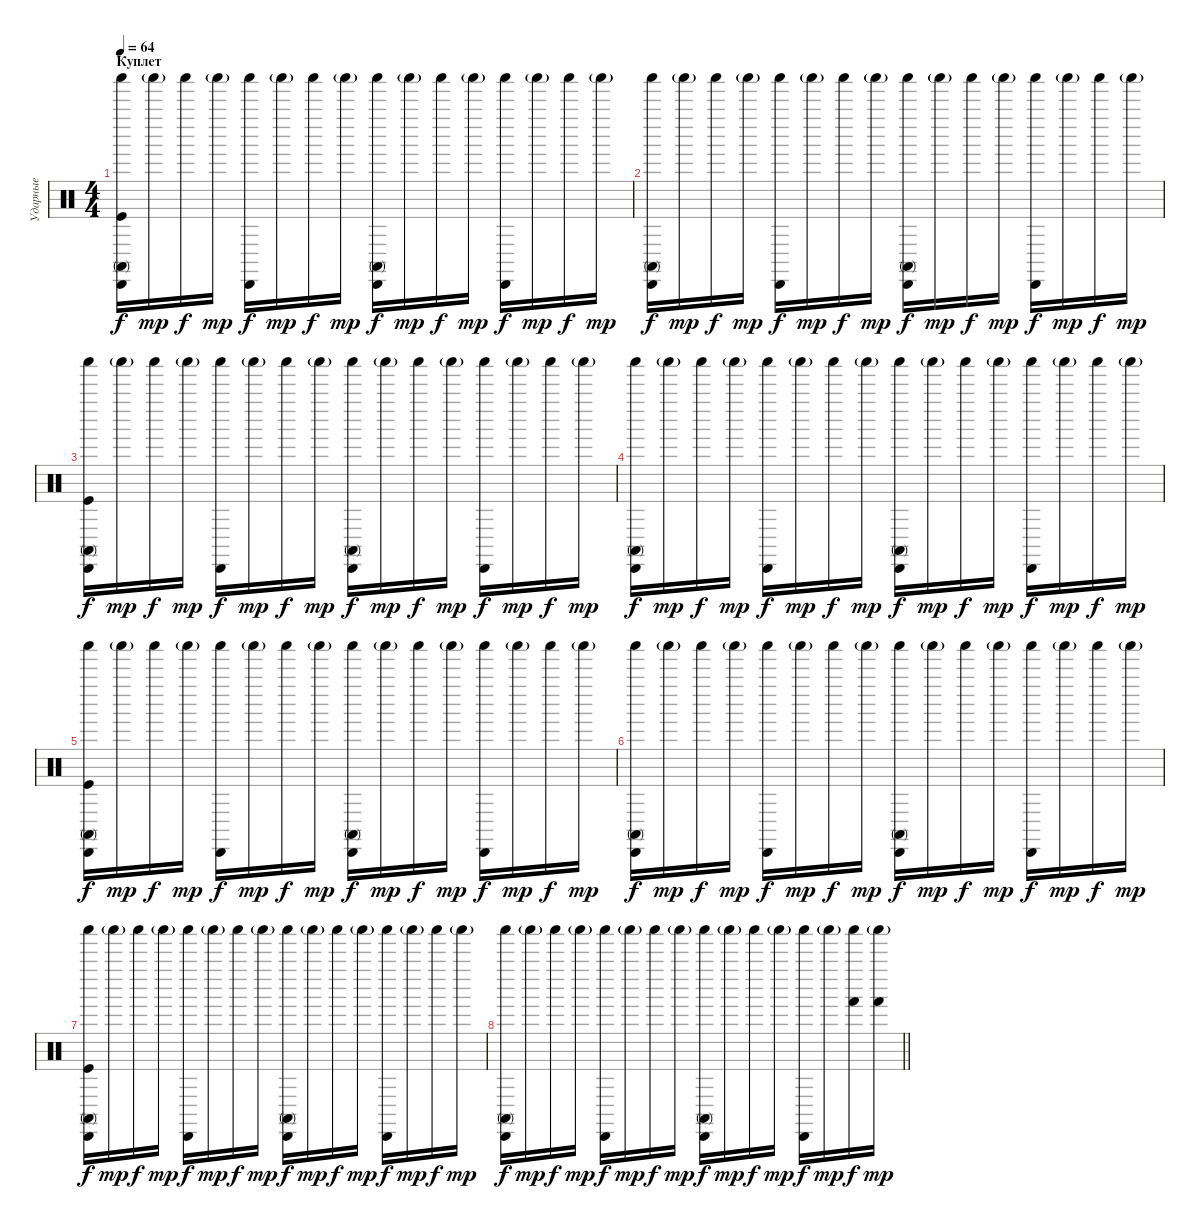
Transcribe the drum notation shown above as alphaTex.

\track ("Ударные" "Ударные") {instrument percussion}
\staff {score}
\articulation defaults
\ts (4 4)
\section ("" "Куплет")
\tempo 64
\clef neutral
\ks c
("Kick (hit)" "Conga high (mute)" "Cabasa (hit)" "Shaker (hit)").16{dy f} "Shaker (hit)"{g}.16{dy mp} "Shaker (hit)".16{dy f} "Shaker (hit)"{g}.16{dy mp} ("Cabasa (hit)" "Shaker (hit)").16{dy f} "Shaker (hit)"{g}.16{dy mp} "Shaker (hit)".16{dy f} "Shaker (hit)"{g}.16{dy mp} ("Conga high (mute)" "Cabasa (hit)" "Shaker (hit)").16{dy f} "Shaker (hit)"{g}.16{dy mp} "Shaker (hit)".16{dy f} "Shaker (hit)"{g}.16{dy mp} ("Cabasa (hit)" "Shaker (hit)").16{dy f} "Shaker (hit)"{g}.16{dy mp} "Shaker (hit)".16{dy f} "Shaker (hit)"{g}.16{dy mp} |
("Conga high (mute)" "Cabasa (hit)" "Shaker (hit)").16{dy f} "Shaker (hit)"{g}.16{dy mp} "Shaker (hit)".16{dy f} "Shaker (hit)"{g}.16{dy mp} ("Cabasa (hit)" "Shaker (hit)").16{dy f} "Shaker (hit)"{g}.16{dy mp} "Shaker (hit)".16{dy f} "Shaker (hit)"{g}.16{dy mp} ("Conga high (mute)" "Cabasa (hit)" "Shaker (hit)").16{dy f} "Shaker (hit)"{g}.16{dy mp} "Shaker (hit)".16{dy f} "Shaker (hit)"{g}.16{dy mp} ("Cabasa (hit)" "Shaker (hit)").16{dy f} "Shaker (hit)"{g}.16{dy mp} "Shaker (hit)".16{dy f} "Shaker (hit)"{g}.16{dy mp} |
("Kick (hit)" "Conga high (mute)" "Cabasa (hit)" "Shaker (hit)").16{dy f} "Shaker (hit)"{g}.16{dy mp} "Shaker (hit)".16{dy f} "Shaker (hit)"{g}.16{dy mp} ("Cabasa (hit)" "Shaker (hit)").16{dy f} "Shaker (hit)"{g}.16{dy mp} "Shaker (hit)".16{dy f} "Shaker (hit)"{g}.16{dy mp} ("Conga high (mute)" "Cabasa (hit)" "Shaker (hit)").16{dy f} "Shaker (hit)"{g}.16{dy mp} "Shaker (hit)".16{dy f} "Shaker (hit)"{g}.16{dy mp} ("Cabasa (hit)" "Shaker (hit)").16{dy f} "Shaker (hit)"{g}.16{dy mp} "Shaker (hit)".16{dy f} "Shaker (hit)"{g}.16{dy mp} |
("Conga high (mute)" "Cabasa (hit)" "Shaker (hit)").16{dy f} "Shaker (hit)"{g}.16{dy mp} "Shaker (hit)".16{dy f} "Shaker (hit)"{g}.16{dy mp} ("Cabasa (hit)" "Shaker (hit)").16{dy f} "Shaker (hit)"{g}.16{dy mp} "Shaker (hit)".16{dy f} "Shaker (hit)"{g}.16{dy mp} ("Conga high (mute)" "Cabasa (hit)" "Shaker (hit)").16{dy f} "Shaker (hit)"{g}.16{dy mp} "Shaker (hit)".16{dy f} "Shaker (hit)"{g}.16{dy mp} ("Cabasa (hit)" "Shaker (hit)").16{dy f} "Shaker (hit)"{g}.16{dy mp} "Shaker (hit)".16{dy f} "Shaker (hit)"{g}.16{dy mp} |
("Kick (hit)" "Conga high (mute)" "Cabasa (hit)" "Shaker (hit)").16{dy f} "Shaker (hit)"{g}.16{dy mp} "Shaker (hit)".16{dy f} "Shaker (hit)"{g}.16{dy mp} ("Cabasa (hit)" "Shaker (hit)").16{dy f} "Shaker (hit)"{g}.16{dy mp} "Shaker (hit)".16{dy f} "Shaker (hit)"{g}.16{dy mp} ("Conga high (mute)" "Cabasa (hit)" "Shaker (hit)").16{dy f} "Shaker (hit)"{g}.16{dy mp} "Shaker (hit)".16{dy f} "Shaker (hit)"{g}.16{dy mp} ("Cabasa (hit)" "Shaker (hit)").16{dy f} "Shaker (hit)"{g}.16{dy mp} "Shaker (hit)".16{dy f} "Shaker (hit)"{g}.16{dy mp} |
("Conga high (mute)" "Cabasa (hit)" "Shaker (hit)").16{dy f} "Shaker (hit)"{g}.16{dy mp} "Shaker (hit)".16{dy f} "Shaker (hit)"{g}.16{dy mp} ("Cabasa (hit)" "Shaker (hit)").16{dy f} "Shaker (hit)"{g}.16{dy mp} "Shaker (hit)".16{dy f} "Shaker (hit)"{g}.16{dy mp} ("Conga high (mute)" "Cabasa (hit)" "Shaker (hit)").16{dy f} "Shaker (hit)"{g}.16{dy mp} "Shaker (hit)".16{dy f} "Shaker (hit)"{g}.16{dy mp} ("Cabasa (hit)" "Shaker (hit)").16{dy f} "Shaker (hit)"{g}.16{dy mp} "Shaker (hit)".16{dy f} "Shaker (hit)"{g}.16{dy mp} |
("Kick (hit)" "Conga high (mute)" "Cabasa (hit)" "Shaker (hit)").16{dy f} "Shaker (hit)"{g}.16{dy mp} "Shaker (hit)".16{dy f} "Shaker (hit)"{g}.16{dy mp} ("Cabasa (hit)" "Shaker (hit)").16{dy f} "Shaker (hit)"{g}.16{dy mp} "Shaker (hit)".16{dy f} "Shaker (hit)"{g}.16{dy mp} ("Conga high (mute)" "Cabasa (hit)" "Shaker (hit)").16{dy f} "Shaker (hit)"{g}.16{dy mp} "Shaker (hit)".16{dy f} "Shaker (hit)"{g}.16{dy mp} ("Cabasa (hit)" "Shaker (hit)").16{dy f} "Shaker (hit)"{g}.16{dy mp} "Shaker (hit)".16{dy f} "Shaker (hit)"{g}.16{dy mp} |
\barLineRight lightlight
("Conga high (mute)" "Cabasa (hit)" "Shaker (hit)").16{dy f} "Shaker (hit)"{g}.16{dy mp} "Shaker (hit)".16{dy f} "Shaker (hit)"{g}.16{dy mp} ("Cabasa (hit)" "Shaker (hit)").16{dy f} "Shaker (hit)"{g}.16{dy mp} "Shaker (hit)".16{dy f} "Shaker (hit)"{g}.16{dy mp} ("Conga high (mute)" "Cabasa (hit)" "Shaker (hit)").16{dy f} "Shaker (hit)"{g}.16{dy mp} "Shaker (hit)".16{dy f} "Shaker (hit)"{g}.16{dy mp} ("Cabasa (hit)" "Shaker (hit)").16{dy f} "Shaker (hit)"{g}.16{dy mp} ("Hand (hit)" "Shaker (hit)").16{dy f} ("Hand (hit)" "Shaker (hit)"{g}).16{dy mp}
